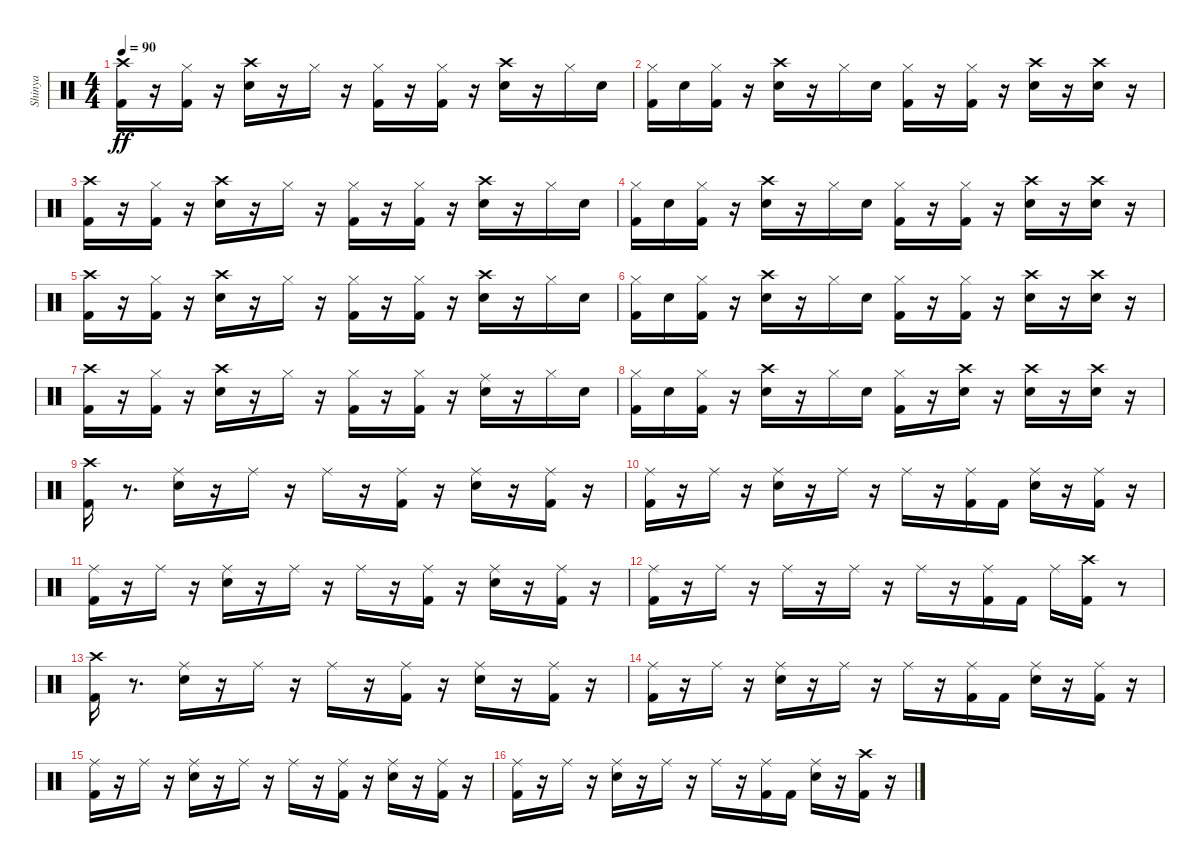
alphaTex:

\track ("Shinya" "Shinya") {instrument percussion}
\staff {score}
\articulation defaults
\ts (4 4)
\tempo 90
\clef neutral
\ks c
("Crash high (hit)" "Kick (hit) 2").16{dy ff} r.16 ("Hi-Hat (closed)" "Kick (hit) 2").16 r.16 ("Snare (hit) 2" "Crash high (hit)").16 r.16 "Hi-Hat (closed)".16 r.16 ("Hi-Hat (closed)" "Kick (hit) 2").16 r.16 ("Hi-Hat (closed)" "Kick (hit) 2").16 r.16 ("Snare (hit) 2" "Crash high (hit)").16 r.16 "Hi-Hat (closed)".16 "Snare (hit) 2".16 |
("Hi-Hat (closed)" "Kick (hit) 2").16 "Snare (hit) 2".16 ("Hi-Hat (closed)" "Kick (hit) 2").16 r.16 ("Snare (hit) 2" "Crash high (hit)").16 r.16 "Hi-Hat (closed)".16 "Snare (hit) 2".16 ("Hi-Hat (closed)" "Kick (hit) 2").16 r.16 ("Hi-Hat (closed)" "Kick (hit) 2").16 r.16 ("Snare (hit) 2" "Crash high (hit)").16 r.16 ("Snare (hit) 2" "Crash high (hit)").16 r.16 |
("Crash high (hit)" "Kick (hit) 2").16 r.16 ("Hi-Hat (closed)" "Kick (hit) 2").16 r.16 ("Snare (hit) 2" "Crash high (hit)").16 r.16 "Hi-Hat (closed)".16 r.16 ("Hi-Hat (closed)" "Kick (hit) 2").16 r.16 ("Hi-Hat (closed)" "Kick (hit) 2").16 r.16 ("Snare (hit) 2" "Crash high (hit)").16 r.16 "Hi-Hat (closed)".16 "Snare (hit) 2".16 |
("Hi-Hat (closed)" "Kick (hit) 2").16 "Snare (hit) 2".16 ("Hi-Hat (closed)" "Kick (hit) 2").16 r.16 ("Snare (hit) 2" "Crash high (hit)").16 r.16 "Hi-Hat (closed)".16 "Snare (hit) 2".16 ("Hi-Hat (closed)" "Kick (hit) 2").16 r.16 ("Hi-Hat (closed)" "Kick (hit) 2").16 r.16 ("Snare (hit) 2" "Crash high (hit)").16 r.16 ("Snare (hit) 2" "Crash high (hit)").16 r.16 |
("Crash high (hit)" "Kick (hit) 2").16 r.16 ("Hi-Hat (closed)" "Kick (hit) 2").16 r.16 ("Snare (hit) 2" "Crash high (hit)").16 r.16 "Hi-Hat (closed)".16 r.16 ("Hi-Hat (closed)" "Kick (hit) 2").16 r.16 ("Hi-Hat (closed)" "Kick (hit) 2").16 r.16 ("Snare (hit) 2" "Crash high (hit)").16 r.16 "Hi-Hat (closed)".16 "Snare (hit) 2".16 |
("Hi-Hat (closed)" "Kick (hit) 2").16 "Snare (hit) 2".16 ("Hi-Hat (closed)" "Kick (hit) 2").16 r.16 ("Snare (hit) 2" "Crash high (hit)").16 r.16 "Hi-Hat (closed)".16 "Snare (hit) 2".16 ("Hi-Hat (closed)" "Kick (hit) 2").16 r.16 ("Hi-Hat (closed)" "Kick (hit) 2").16 r.16 ("Snare (hit) 2" "Crash high (hit)").16 r.16 ("Snare (hit) 2" "Crash high (hit)").16 r.16 |
("Crash high (hit)" "Kick (hit) 2").16 r.16 ("Hi-Hat (closed)" "Kick (hit) 2").16 r.16 ("Snare (hit) 2" "Crash high (hit)").16 r.16 "Hi-Hat (closed)".16 r.16 ("Hi-Hat (closed)" "Kick (hit) 2").16 r.16 ("Hi-Hat (closed)" "Kick (hit) 2").16 r.16 ("Snare (hit) 2" "Ride (middle)").16 r.16 "Hi-Hat (closed)".16 "Snare (hit) 2".16 |
("Hi-Hat (closed)" "Kick (hit) 2").16 "Snare (hit) 2".16 ("Hi-Hat (closed)" "Kick (hit) 2").16 r.16 ("Snare (hit) 2" "Crash high (hit)").16 r.16 "Hi-Hat (closed)".16 "Snare (hit) 2".16 ("Hi-Hat (closed)" "Kick (hit) 2").16 r.16 ("Snare (hit) 2" "Crash high (hit)").16 r.16 ("Snare (hit) 2" "Crash high (hit)").16 r.16 ("Snare (hit) 2" "Crash high (hit)").16 r.16 |
("Crash high (hit)" "Kick (hit) 2").16 r.8{d} ("Snare (hit) 2" "Ride (middle)").16 r.16 "Ride (middle)".16 r.16 "Ride (middle)".16 r.16 ("Ride (middle)" "Kick (hit) 2").16 r.16 ("Snare (hit) 2" "Ride (middle)").16 r.16 ("Ride (middle)" "Kick (hit) 2").16 r.16 |
("Ride (middle)" "Kick (hit) 2").16 r.16 "Ride (middle)".16 r.16 ("Snare (hit) 2" "Ride (middle)").16 r.16 "Ride (middle)".16 r.16 "Ride (middle)".16 r.16 ("Ride (middle)" "Kick (hit) 2").16 "Kick (hit) 2".16 ("Snare (hit) 2" "Ride (middle)").16 r.16 ("Ride (middle)" "Kick (hit) 2").16 r.16 |
("Ride (middle)" "Kick (hit) 2").16 r.16 "Ride (middle)".16 r.16 ("Snare (hit) 2" "Ride (middle)").16 r.16 "Ride (middle)".16 r.16 "Ride (middle)".16 r.16 ("Ride (middle)" "Kick (hit) 2").16 r.16 ("Snare (hit) 2" "Ride (middle)").16 r.16 ("Ride (middle)" "Kick (hit) 2").16 r.16 |
("Ride (middle)" "Kick (hit) 2").16 r.16 "Ride (middle)".16 r.16 "Ride (middle)".16 r.16 "Ride (middle)".16 r.16 "Ride (middle)".16 r.16 ("Ride (middle)" "Kick (hit) 2").16 "Kick (hit) 2".16 "Ride (middle)".16 ("Crash high (hit)" "Kick (hit) 2").16 r.8 |
("Crash high (hit)" "Kick (hit) 2").16 r.8{d} ("Snare (hit) 2" "Ride (middle)").16 r.16 "Ride (middle)".16 r.16 "Ride (middle)".16 r.16 ("Kick (hit) 2" "Ride (middle)").16 r.16 ("Snare (hit) 2" "Ride (middle)").16 r.16 ("Ride (middle)" "Kick (hit) 2").16 r.16 |
("Ride (middle)" "Kick (hit) 2").16 r.16 "Ride (middle)".16 r.16 ("Snare (hit) 2" "Ride (middle)").16 r.16 "Ride (middle)".16 r.16 "Ride (middle)".16 r.16 ("Ride (middle)" "Kick (hit) 2").16 "Kick (hit) 2".16 ("Snare (hit) 2" "Ride (middle)").16 r.16 ("Ride (middle)" "Kick (hit) 2").16 r.16 |
("Ride (middle)" "Kick (hit) 2").16 r.16 "Ride (middle)".16 r.16 ("Snare (hit) 2" "Ride (middle)").16 r.16 "Ride (middle)".16 r.16 "Ride (middle)".16 r.16 ("Ride (middle)" "Kick (hit) 2").16 r.16 ("Snare (hit) 2" "Ride (middle)").16 r.16 ("Ride (middle)" "Kick (hit) 2").16 r.16 |
("Ride (middle)" "Kick (hit) 2").16 r.16 "Ride (middle)".16 r.16 ("Snare (hit) 2" "Ride (middle)").16 r.16 "Ride (middle)".16 r.16 "Ride (middle)".16 r.16 ("Ride (middle)" "Kick (hit) 2").16 "Kick (hit) 2".16 ("Snare (hit) 2" "Ride (middle)").16 r.16 ("Crash high (hit)" "Kick (hit) 2").16 r.16
